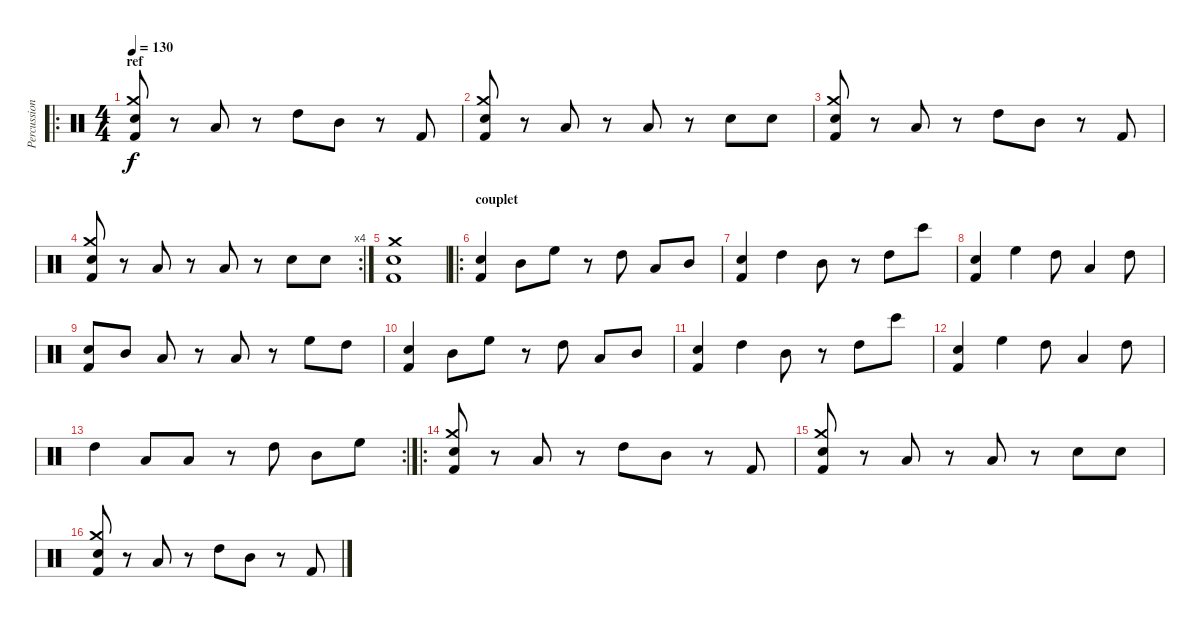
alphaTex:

\track ("Percussions" "Percussion") {instrument percussion}
\staff {score}
\articulation defaults
\ro
\ts (4 4)
\section ("" "ref ")
\tempo 130
\clef neutral
\ks c
("Kick (hit) 2" "Crash medium (hit)" "Electric Snare (hit)").8{dy f} r.8 "Low Tom (hit)".8 r.8 "High Tom (hit)".8 "Mid Tom (hit)".8 r.8 "Kick (hit) 2".8 |
("Kick (hit) 2" "Crash medium (hit)" "Electric Snare (hit)").8 r.8 "Low Tom (hit)".8 r.8 "Low Tom (hit)".8 r.8 "Electric Snare (hit)".8 "Electric Snare (hit)".8 |
("Kick (hit) 2" "Crash medium (hit)" "Electric Snare (hit)").8 r.8 "Low Tom (hit)".8 r.8 "High Tom (hit)".8 "Mid Tom (hit)".8 r.8 "Kick (hit) 2".8 |
\rc 4
("Kick (hit) 2" "Crash medium (hit)" "Electric Snare (hit)").8 r.8 "Low Tom (hit)".8 r.8 "Low Tom (hit)".8 r.8 "Electric Snare (hit)".8 "Electric Snare (hit)".8 |
("Kick (hit) 2" "Electric Snare (hit)" "Crash medium (hit)").1 |
\ro
\section ("" "couplet")
("Kick (hit) 2" "Electric Snare (hit)").4 "Mid Tom (hit)".8 "High Floor Tom (hit)".8 r.8 "High Tom (hit)".8 "Low Tom (hit)".8 "Mid Tom (hit)".8 |
("Electric Snare (hit)" "Kick (hit) 2").4 "High Tom (hit)".4 "Mid Tom (hit)".8 r.8 "High Tom (hit)".8 "Bongo High (hit)".8 |
("Electric Snare (hit)" "Kick (hit) 2").4 "High Floor Tom (hit)".4 "High Tom (hit)".8 "Low Tom (hit)".4 "High Tom (hit)".8 |
("Kick (hit) 2" "Electric Snare (hit)").8 "Mid Tom (hit)".8 "Low Tom (hit)".8 r.8 "Low Tom (hit)".8 r.8 "High Floor Tom (hit)".8 "High Tom (hit)".8 |
("Kick (hit) 2" "Electric Snare (hit)").4 "Mid Tom (hit)".8 "High Floor Tom (hit)".8 r.8 "High Tom (hit)".8 "Low Tom (hit)".8 "Mid Tom (hit)".8 |
("Electric Snare (hit)" "Kick (hit) 2").4 "High Tom (hit)".4 "Mid Tom (hit)".8 r.8 "High Tom (hit)".8 "Bongo High (hit)".8 |
("Electric Snare (hit)" "Kick (hit) 2").4 "High Floor Tom (hit)".4 "High Tom (hit)".8 "Low Tom (hit)".4 "High Tom (hit)".8 |
\rc 2 "High Tom (hit)".4 "Low Tom (hit)".8 "Low Tom (hit)".8
r.8 "High Tom (hit)".8 "Mid Tom (hit)".8 "High Floor Tom (hit)".8 |
\ro
("Kick (hit) 2" "Crash medium (hit)" "Electric Snare (hit)").8 r.8 "Low Tom (hit)".8 r.8 "High Tom (hit)".8 "Mid Tom (hit)".8 r.8 "Kick (hit) 2".8 |
("Kick (hit) 2" "Crash medium (hit)" "Electric Snare (hit)").8 r.8 "Low Tom (hit)".8 r.8 "Low Tom (hit)".8 r.8 "Electric Snare (hit)".8 "Electric Snare (hit)".8 |
("Kick (hit) 2" "Crash medium (hit)" "Electric Snare (hit)").8 r.8 "Low Tom (hit)".8 r.8 "High Tom (hit)".8 "Mid Tom (hit)".8 r.8 "Kick (hit) 2".8
